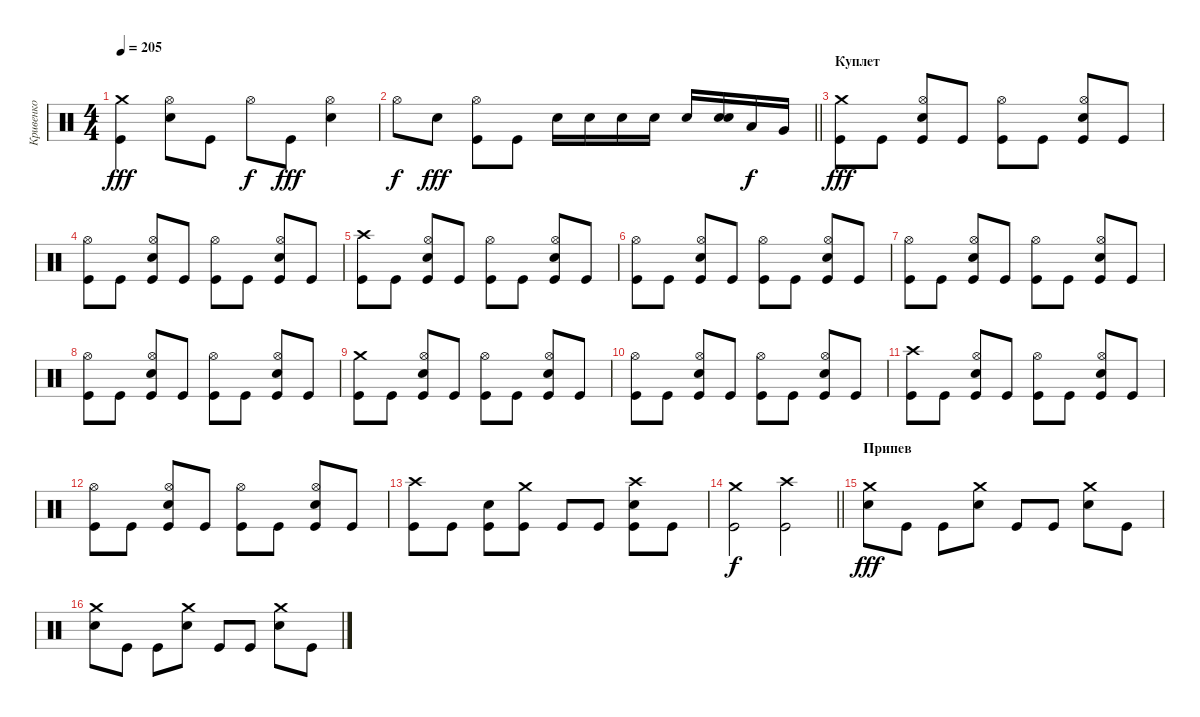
\track ("Кривенко" "Кривенко") {instrument percussion}
\staff {score}
\articulation defaults
\ts (4 4)
\tempo 205
\clef neutral
\ks c
("Crash medium (hit)" "Kick (hit)").4{dy fff} ("Hi-Hat (open)" "Electric Snare (hit)").8 "Kick (hit)".8 "Hi-Hat (open)".8{dy f} "Kick (hit)".8{dy fff} ("Hi-Hat (open)" "Electric Snare (hit)").4 |
\barLineRight lightlight "Hi-Hat (open)".8{dy f} "Electric Snare (hit)".8{dy fff}
("Hi-Hat (open)" "Kick (hit)").8 "Kick (hit)".8 "Electric Snare (hit)".16 "Electric Snare (hit)".16 "Electric Snare (hit)".16 "Electric Snare (hit)".16 "Electric Snare (hit)".16 ("Electric Snare (hit)" "Electric Snare (hit)").16 "Low Tom (hit)".16{dy f} "Very Low Tom (hit)".16 |
\section ("" "Куплет")
("Crash medium (hit)" "Kick (hit)").8{dy fff} "Kick (hit)".8 ("Hi-Hat (open)" "Electric Snare (hit)" "Kick (hit)").8 "Kick (hit)".8 ("Hi-Hat (open)" "Kick (hit)").8 "Kick (hit)".8 ("Hi-Hat (open)" "Electric Snare (hit)" "Kick (hit)").8 "Kick (hit)".8 |
("Hi-Hat (open)" "Kick (hit)").8 "Kick (hit)".8 ("Hi-Hat (open)" "Electric Snare (hit)" "Kick (hit)").8 "Kick (hit)".8 ("Hi-Hat (open)" "Kick (hit)").8 "Kick (hit)".8 ("Hi-Hat (open)" "Electric Snare (hit)" "Kick (hit)").8 "Kick (hit)".8 |
("Crash high (hit)" "Kick (hit)").8 "Kick (hit)".8 ("Hi-Hat (open)" "Electric Snare (hit)" "Kick (hit)").8 "Kick (hit)".8 ("Hi-Hat (open)" "Kick (hit)").8 "Kick (hit)".8 ("Hi-Hat (open)" "Electric Snare (hit)" "Kick (hit)").8 "Kick (hit)".8 |
("Hi-Hat (open)" "Kick (hit)").8 "Kick (hit)".8 ("Hi-Hat (open)" "Electric Snare (hit)" "Kick (hit)").8 "Kick (hit)".8 ("Hi-Hat (open)" "Kick (hit)").8 "Kick (hit)".8 ("Hi-Hat (open)" "Electric Snare (hit)" "Kick (hit)").8 "Kick (hit)".8 |
("Hi-Hat (open)" "Kick (hit)").8 "Kick (hit)".8 ("Hi-Hat (open)" "Electric Snare (hit)" "Kick (hit)").8 "Kick (hit)".8 ("Hi-Hat (open)" "Kick (hit)").8 "Kick (hit)".8 ("Hi-Hat (open)" "Electric Snare (hit)" "Kick (hit)").8 "Kick (hit)".8 |
("Hi-Hat (open)" "Kick (hit)").8 "Kick (hit)".8 ("Hi-Hat (open)" "Electric Snare (hit)" "Kick (hit)").8 "Kick (hit)".8 ("Hi-Hat (open)" "Kick (hit)").8 "Kick (hit)".8 ("Hi-Hat (open)" "Electric Snare (hit)" "Kick (hit)").8 "Kick (hit)".8 |
("Crash medium (hit)" "Kick (hit)").8 "Kick (hit)".8 ("Hi-Hat (open)" "Electric Snare (hit)" "Kick (hit)").8 "Kick (hit)".8 ("Hi-Hat (open)" "Kick (hit)").8 "Kick (hit)".8 ("Hi-Hat (open)" "Electric Snare (hit)" "Kick (hit)").8 "Kick (hit)".8 |
("Hi-Hat (open)" "Kick (hit)").8 "Kick (hit)".8 ("Hi-Hat (open)" "Electric Snare (hit)" "Kick (hit)").8 "Kick (hit)".8 ("Hi-Hat (open)" "Kick (hit)").8 "Kick (hit)".8 ("Hi-Hat (open)" "Electric Snare (hit)" "Kick (hit)").8 "Kick (hit)".8 |
("Crash high (hit)" "Kick (hit)").8 "Kick (hit)".8 ("Hi-Hat (open)" "Electric Snare (hit)" "Kick (hit)").8 "Kick (hit)".8 ("Hi-Hat (open)" "Kick (hit)").8 "Kick (hit)".8 ("Hi-Hat (open)" "Electric Snare (hit)" "Kick (hit)").8 "Kick (hit)".8 |
("Hi-Hat (open)" "Kick (hit)").8 "Kick (hit)".8 ("Hi-Hat (open)" "Electric Snare (hit)" "Kick (hit)").8 "Kick (hit)".8 ("Hi-Hat (open)" "Kick (hit)").8 "Kick (hit)".8 ("Hi-Hat (open)" "Electric Snare (hit)" "Kick (hit)").8 "Kick (hit)".8 |
("Crash high (hit)" "Kick (hit)").8 "Kick (hit)".8 ("Electric Snare (hit)" "Kick (hit)").8 ("Crash medium (hit)" "Kick (hit)").8 "Kick (hit)".8 "Kick (hit)".8 ("Crash high (hit)" "Electric Snare (hit)" "Kick (hit)").8 "Kick (hit)".8 |
\barLineRight lightlight
("Crash medium (hit)" "Kick (hit)").2{dy f} ("Crash high (hit)" "Kick (hit)").2 |
\section ("" "Припев")
("Crash medium (hit)" "Electric Snare (hit)").8{dy fff} "Kick (hit)".8 "Kick (hit)".8 ("Crash medium (hit)" "Electric Snare (hit)").8 "Kick (hit)".8 "Kick (hit)".8 ("Crash medium (hit)" "Electric Snare (hit)").8 "Kick (hit)".8 |
("Crash medium (hit)" "Electric Snare (hit)").8 "Kick (hit)".8 "Kick (hit)".8 ("Crash medium (hit)" "Electric Snare (hit)").8 "Kick (hit)".8 "Kick (hit)".8 ("Crash medium (hit)" "Electric Snare (hit)").8 "Kick (hit)".8
